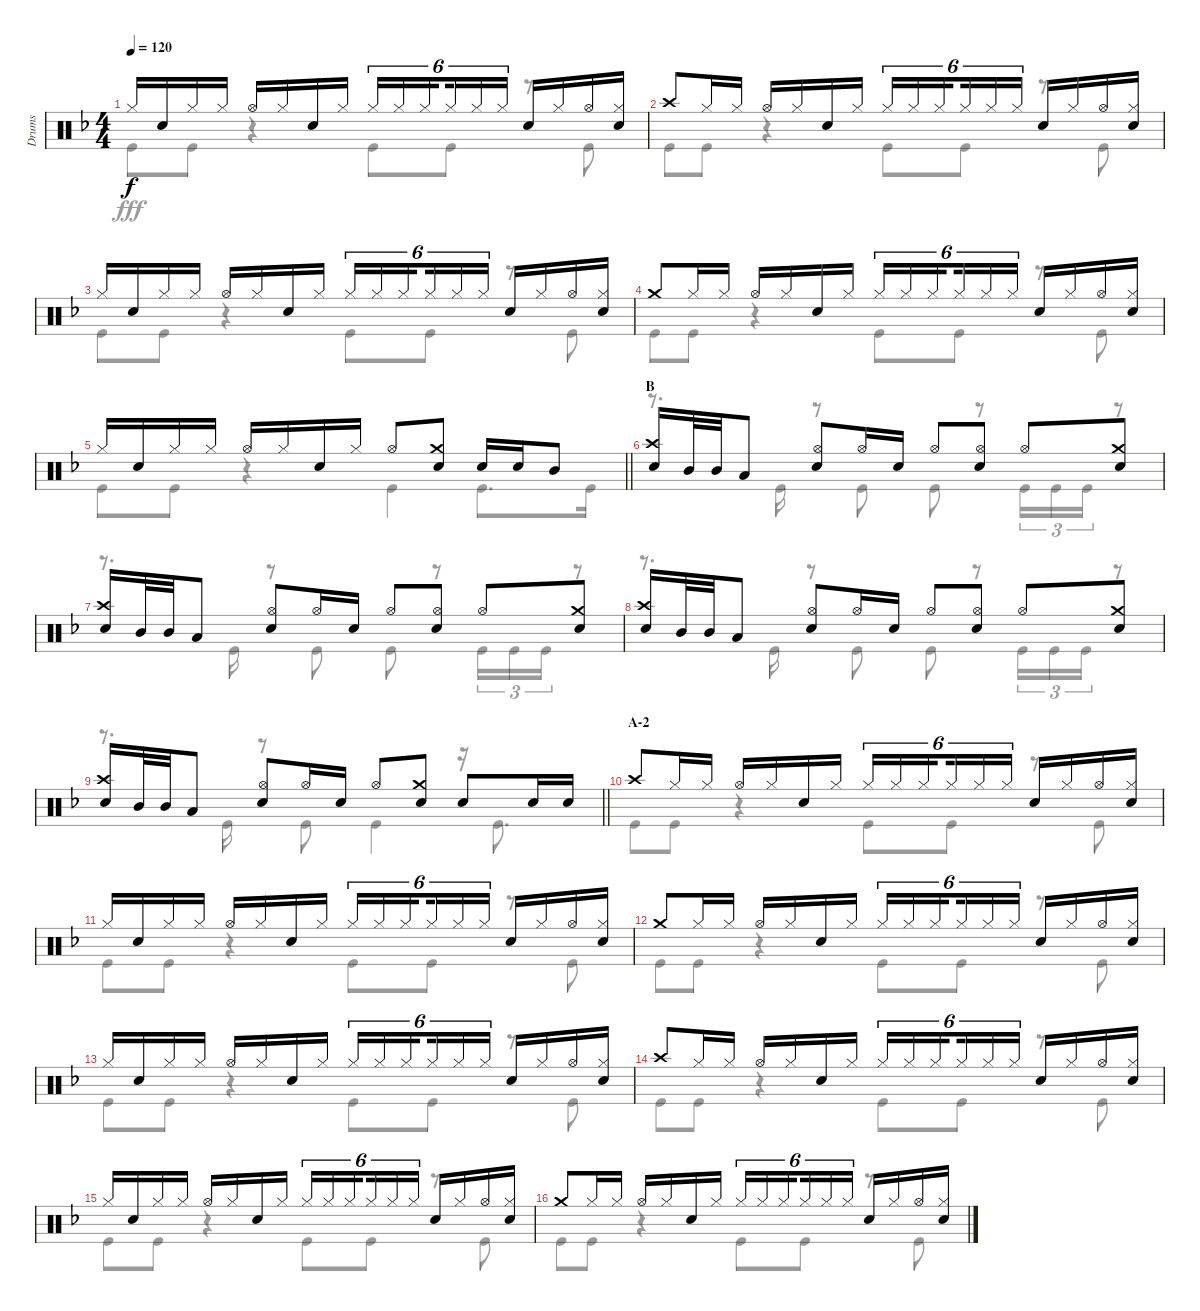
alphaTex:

\track ("Drums" "Drums") {instrument percussion}
\staff {score}
\articulation defaults
\voice
\ts (4 4)
\tempo 120
\clef neutral
\ks f "Hi-Hat (closed)".16{dy f} "Snare (hit) 2".16 "Hi-Hat (closed)".16 "Hi-Hat (closed)".16 "Hi-Hat (open)".16 "Hi-Hat (closed)".16 "Snare (hit) 2".16 "Hi-Hat (closed)".16 "Hi-Hat (closed)".16{tu (6 4)} "Hi-Hat (closed)".16{tu (6 4)} "Hi-Hat (closed)".16{tu (6 4) beam splitsecondary} "Hi-Hat (closed)".16{tu (6 4)} "Hi-Hat (closed)".16{tu (6 4)} "Hi-Hat (closed)".16{tu (6 4)} "Snare (hit) 2".16 "Hi-Hat (closed)".16 "Hi-Hat (open)".16
("Hi-Hat (closed)" "Snare (hit) 2").16 |
"Crash high (hit)".8 "Hi-Hat (closed)".16 "Hi-Hat (closed)".16 "Hi-Hat (open)".16 "Hi-Hat (closed)".16 "Snare (hit) 2".16 "Hi-Hat (closed)".16 "Hi-Hat (closed)".16{tu (6 4)} "Hi-Hat (closed)".16{tu (6 4)} "Hi-Hat (closed)".16{tu (6 4) beam splitsecondary} "Hi-Hat (closed)".16{tu (6 4)} "Hi-Hat (closed)".16{tu (6 4)} "Hi-Hat (closed)".16{tu (6 4)} "Snare (hit) 2".16 "Hi-Hat (closed)".16 "Hi-Hat (open)".16 ("Hi-Hat (closed)" "Snare (hit) 2").16 |
"Hi-Hat (closed)".16 "Snare (hit) 2".16 "Hi-Hat (closed)".16 "Hi-Hat (closed)".16 "Hi-Hat (open)".16 "Hi-Hat (closed)".16 "Snare (hit) 2".16 "Hi-Hat (closed)".16 "Hi-Hat (closed)".16{tu (6 4)} "Hi-Hat (closed)".16{tu (6 4)} "Hi-Hat (closed)".16{tu (6 4) beam splitsecondary} "Hi-Hat (closed)".16{tu (6 4)} "Hi-Hat (closed)".16{tu (6 4)} "Hi-Hat (closed)".16{tu (6 4)} "Snare (hit) 2".16 "Hi-Hat (closed)".16 "Hi-Hat (open)".16 ("Hi-Hat (closed)" "Snare (hit) 2").16 |
"Crash medium (hit)".8 "Hi-Hat (closed)".16 "Hi-Hat (closed)".16 "Hi-Hat (open)".16 "Hi-Hat (closed)".16 "Snare (hit) 2".16 "Hi-Hat (closed)".16 "Hi-Hat (closed)".16{tu (6 4)} "Hi-Hat (closed)".16{tu (6 4)} "Hi-Hat (closed)".16{tu (6 4) beam splitsecondary} "Hi-Hat (closed)".16{tu (6 4)} "Hi-Hat (closed)".16{tu (6 4)} "Hi-Hat (closed)".16{tu (6 4)} "Snare (hit) 2".16 "Hi-Hat (closed)".16 "Hi-Hat (open)".16 ("Hi-Hat (closed)" "Snare (hit) 2").16 |
\barLineRight lightlight "Hi-Hat (closed)".16 "Snare (hit) 2".16 "Hi-Hat (closed)".16 "Hi-Hat (closed)".16 "Hi-Hat (open)".16 "Hi-Hat (closed)".16 "Snare (hit) 2".16 "Hi-Hat (closed)".16 "Hi-Hat (open)".8
("Crash medium (hit)" "Snare (hit) 2").8 "Snare (hit) 2".16 "Snare (hit) 2".16 "Mid Tom (hit)".8 |
\section ("" "B")
("Crash high (hit)" "Snare (hit) 2").16 "Mid Tom (hit)".32 "Mid Tom (hit)".32 "Low Tom (hit)".8 ("Hi-Hat (open)" "Snare (hit) 2").8 "Hi-Hat (open)".16 "Snare (hit) 2".16 "Hi-Hat (open)".8 ("Hi-Hat (open)" "Snare (hit) 2").8 "Hi-Hat (open)".8 ("Crash medium (hit)" "Snare (hit) 2").8 |
("Crash high (hit)" "Snare (hit) 2").16 "Mid Tom (hit)".32 "Mid Tom (hit)".32 "Low Tom (hit)".8 ("Hi-Hat (open)" "Snare (hit) 2").8 "Hi-Hat (open)".16 "Snare (hit) 2".16 "Hi-Hat (open)".8 ("Hi-Hat (open)" "Snare (hit) 2").8 "Hi-Hat (open)".8 ("Crash medium (hit)" "Snare (hit) 2").8 |
("Crash high (hit)" "Snare (hit) 2").16 "Mid Tom (hit)".32 "Mid Tom (hit)".32 "Low Tom (hit)".8 ("Hi-Hat (open)" "Snare (hit) 2").8 "Hi-Hat (open)".16 "Snare (hit) 2".16 "Hi-Hat (open)".8 ("Hi-Hat (open)" "Snare (hit) 2").8 "Hi-Hat (open)".8 ("Crash medium (hit)" "Snare (hit) 2").8 |
\barLineRight lightlight
("Crash high (hit)" "Snare (hit) 2").16 "Mid Tom (hit)".32 "Mid Tom (hit)".32 "Low Tom (hit)".8 ("Hi-Hat (open)" "Snare (hit) 2").8 "Hi-Hat (open)".16 "Snare (hit) 2".16 "Hi-Hat (open)".8 ("Crash medium (hit)" "Snare (hit) 2").8 "Snare (hit) 2".8 "Snare (hit) 2".16 "Snare (hit) 2".16 |
\section ("" "A-2")
"Crash high (hit)".8 "Hi-Hat (closed)".16 "Hi-Hat (closed)".16 "Hi-Hat (open)".16 "Hi-Hat (closed)".16 "Snare (hit) 2".16 "Hi-Hat (closed)".16 "Hi-Hat (closed)".16{tu (6 4)} "Hi-Hat (closed)".16{tu (6 4)} "Hi-Hat (closed)".16{tu (6 4) beam splitsecondary} "Hi-Hat (closed)".16{tu (6 4)} "Hi-Hat (closed)".16{tu (6 4)} "Hi-Hat (closed)".16{tu (6 4)} "Snare (hit) 2".16 "Hi-Hat (closed)".16 "Hi-Hat (open)".16 ("Hi-Hat (closed)" "Snare (hit) 2").16 |
"Hi-Hat (closed)".16 "Snare (hit) 2".16 "Hi-Hat (closed)".16 "Hi-Hat (closed)".16 "Hi-Hat (open)".16 "Hi-Hat (closed)".16 "Snare (hit) 2".16 "Hi-Hat (closed)".16 "Hi-Hat (closed)".16{tu (6 4)} "Hi-Hat (closed)".16{tu (6 4)} "Hi-Hat (closed)".16{tu (6 4) beam splitsecondary} "Hi-Hat (closed)".16{tu (6 4)} "Hi-Hat (closed)".16{tu (6 4)} "Hi-Hat (closed)".16{tu (6 4)} "Snare (hit) 2".16 "Hi-Hat (closed)".16 "Hi-Hat (open)".16 ("Hi-Hat (closed)" "Snare (hit) 2").16 |
"Crash medium (hit)".8 "Hi-Hat (closed)".16 "Hi-Hat (closed)".16 "Hi-Hat (open)".16 "Hi-Hat (closed)".16 "Snare (hit) 2".16 "Hi-Hat (closed)".16 "Hi-Hat (closed)".16{tu (6 4)} "Hi-Hat (closed)".16{tu (6 4)} "Hi-Hat (closed)".16{tu (6 4) beam splitsecondary} "Hi-Hat (closed)".16{tu (6 4)} "Hi-Hat (closed)".16{tu (6 4)} "Hi-Hat (closed)".16{tu (6 4)} "Snare (hit) 2".16 "Hi-Hat (closed)".16 "Hi-Hat (open)".16 ("Hi-Hat (closed)" "Snare (hit) 2").16 |
"Hi-Hat (closed)".16 "Snare (hit) 2".16 "Hi-Hat (closed)".16 "Hi-Hat (closed)".16 "Hi-Hat (open)".16 "Hi-Hat (closed)".16 "Snare (hit) 2".16 "Hi-Hat (closed)".16 "Hi-Hat (closed)".16{tu (6 4)} "Hi-Hat (closed)".16{tu (6 4)} "Hi-Hat (closed)".16{tu (6 4) beam splitsecondary} "Hi-Hat (closed)".16{tu (6 4)} "Hi-Hat (closed)".16{tu (6 4)} "Hi-Hat (closed)".16{tu (6 4)} "Snare (hit) 2".16 "Hi-Hat (closed)".16 "Hi-Hat (open)".16 ("Hi-Hat (closed)" "Snare (hit) 2").16 |
"Crash high (hit)".8 "Hi-Hat (closed)".16 "Hi-Hat (closed)".16 "Hi-Hat (open)".16 "Hi-Hat (closed)".16 "Snare (hit) 2".16 "Hi-Hat (closed)".16 "Hi-Hat (closed)".16{tu (6 4)} "Hi-Hat (closed)".16{tu (6 4)} "Hi-Hat (closed)".16{tu (6 4) beam splitsecondary} "Hi-Hat (closed)".16{tu (6 4)} "Hi-Hat (closed)".16{tu (6 4)} "Hi-Hat (closed)".16{tu (6 4)} "Snare (hit) 2".16 "Hi-Hat (closed)".16 "Hi-Hat (open)".16 ("Hi-Hat (closed)" "Snare (hit) 2").16 |
"Hi-Hat (closed)".16 "Snare (hit) 2".16 "Hi-Hat (closed)".16 "Hi-Hat (closed)".16 "Hi-Hat (open)".16 "Hi-Hat (closed)".16 "Snare (hit) 2".16 "Hi-Hat (closed)".16 "Hi-Hat (closed)".16{tu (6 4)} "Hi-Hat (closed)".16{tu (6 4)} "Hi-Hat (closed)".16{tu (6 4) beam splitsecondary} "Hi-Hat (closed)".16{tu (6 4)} "Hi-Hat (closed)".16{tu (6 4)} "Hi-Hat (closed)".16{tu (6 4)} "Snare (hit) 2".16 "Hi-Hat (closed)".16 "Hi-Hat (open)".16 ("Hi-Hat (closed)" "Snare (hit) 2").16 |
"Crash medium (hit)".8 "Hi-Hat (closed)".16 "Hi-Hat (closed)".16 "Hi-Hat (open)".16 "Hi-Hat (closed)".16 "Snare (hit) 2".16 "Hi-Hat (closed)".16 "Hi-Hat (closed)".16{tu (6 4)} "Hi-Hat (closed)".16{tu (6 4)} "Hi-Hat (closed)".16{tu (6 4) beam splitsecondary} "Hi-Hat (closed)".16{tu (6 4)} "Hi-Hat (closed)".16{tu (6 4)} "Hi-Hat (closed)".16{tu (6 4)} "Snare (hit) 2".16 "Hi-Hat (closed)".16 "Hi-Hat (open)".16 ("Hi-Hat (closed)" "Snare (hit) 2").16
\voice
\clef neutral
\ottava regular
\simile none
\ks f "Kick (hit)".8{dy fff} "Kick (hit)".8
r.4 "Kick (hit)".8 "Kick (hit)".8 r.8 "Kick (hit)".8 |
"Kick (hit)".8 "Kick (hit)".8 r.4 "Kick (hit)".8 "Kick (hit)".8 r.8 "Kick (hit)".8 |
"Kick (hit)".8 "Kick (hit)".8 r.4 "Kick (hit)".8 "Kick (hit)".8 r.8 "Kick (hit)".8 |
"Kick (hit)".8 "Kick (hit)".8 r.4 "Kick (hit)".8 "Kick (hit)".8 r.8 "Kick (hit)".8 |
\barLineRight lightlight "Kick (hit)".8 "Kick (hit)".8
r.4 "Kick (hit)".4 "Kick (hit)".8{d} "Kick (hit)".16 |
r.8{d} "Kick (hit)".16 r.8 "Kick (hit)".8 "Kick (hit)".8 r.8 "Kick (hit)".16{tu (3 2)} "Kick (hit)".16{tu (3 2)} "Kick (hit)".16{tu (3 2)} r.8 |
r.8{d} "Kick (hit)".16 r.8 "Kick (hit)".8 "Kick (hit)".8 r.8 "Kick (hit)".16{tu (3 2)} "Kick (hit)".16{tu (3 2)} "Kick (hit)".16{tu (3 2)} r.8 |
r.8{d} "Kick (hit)".16 r.8 "Kick (hit)".8 "Kick (hit)".8 r.8 "Kick (hit)".16{tu (3 2)} "Kick (hit)".16{tu (3 2)} "Kick (hit)".16{tu (3 2)} r.8 |
\barLineRight lightlight
r.8{d} "Kick (hit)".16 r.8 "Kick (hit)".8 "Kick (hit)".4 r.16 "Kick (hit)".8{d} |
"Kick (hit)".8 "Kick (hit)".8 r.4 "Kick (hit)".8 "Kick (hit)".8 r.8 "Kick (hit)".8 |
"Kick (hit)".8 "Kick (hit)".8 r.4 "Kick (hit)".8 "Kick (hit)".8 r.8 "Kick (hit)".8 |
"Kick (hit)".8 "Kick (hit)".8 r.4 "Kick (hit)".8 "Kick (hit)".8 r.8 "Kick (hit)".8 |
"Kick (hit)".8 "Kick (hit)".8 r.4 "Kick (hit)".8 "Kick (hit)".8 r.8 "Kick (hit)".8 |
"Kick (hit)".8 "Kick (hit)".8 r.4 "Kick (hit)".8 "Kick (hit)".8 r.8 "Kick (hit)".8 |
"Kick (hit)".8 "Kick (hit)".8 r.4 "Kick (hit)".8 "Kick (hit)".8 r.8 "Kick (hit)".8 |
"Kick (hit)".8 "Kick (hit)".8 r.4 "Kick (hit)".8 "Kick (hit)".8 r.8 "Kick (hit)".8
